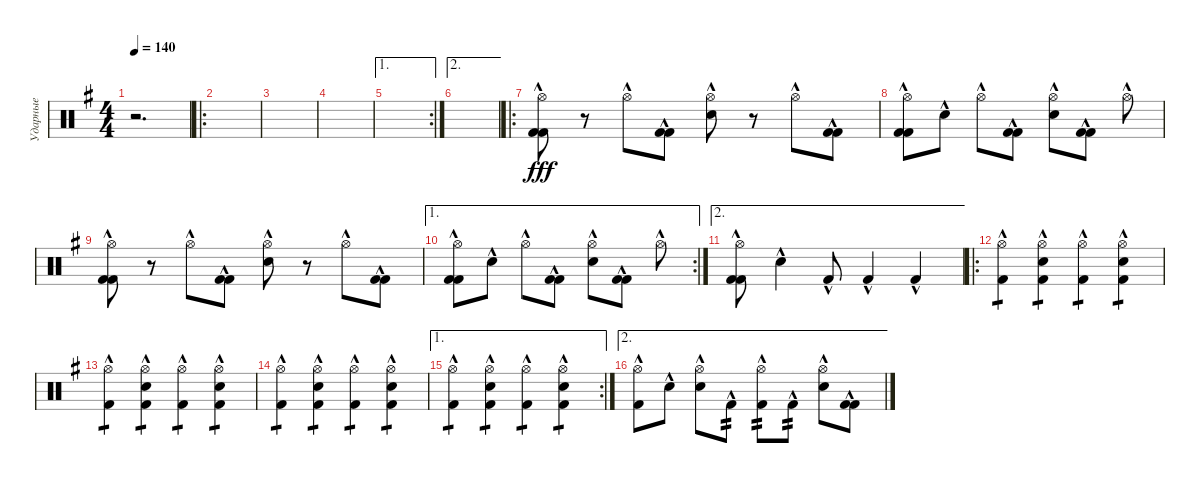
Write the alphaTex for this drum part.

\track ("Ударные" "Ударные") {instrument percussion}
\staff {score}
\articulation defaults
\ts (4 4)
\tempo 140
\clef neutral
\ks g
r.2{d dy fff} |
\ro
|
|
|
\ae 1
\rc 2
|
\ae 2
|
\ro
("Hi-Hat (open)"{hac} "Kick (hit) 2"{hac} "Kick (hit) 2"{hac}).8 r.8 "Hi-Hat (open)"{hac}.8 ("Kick (hit) 2"{hac} "Kick (hit) 2"{hac}).8 ("Hi-Hat (open)"{hac} "Electric Snare (hit)"{hac}).8 r.8 "Hi-Hat (open)"{hac}.8 ("Kick (hit) 2"{hac} "Kick (hit) 2"{hac}).8 |
("Hi-Hat (open)"{hac} "Kick (hit) 2"{hac} "Kick (hit) 2"{hac}).8 "Electric Snare (hit)"{hac}.8 "Hi-Hat (open)"{hac}.8 ("Kick (hit) 2"{hac} "Kick (hit) 2"{hac}).8 ("Hi-Hat (open)"{hac} "Electric Snare (hit)"{hac}).8 ("Kick (hit) 2"{hac} "Kick (hit) 2"{hac}).8 "Hi-Hat (open)"{hac}.8 |
("Hi-Hat (open)"{hac} "Kick (hit) 2"{hac} "Kick (hit) 2"{hac}).8 r.8 "Hi-Hat (open)"{hac}.8 ("Kick (hit) 2"{hac} "Kick (hit) 2"{hac}).8 ("Hi-Hat (open)"{hac} "Electric Snare (hit)"{hac}).8 r.8 "Hi-Hat (open)"{hac}.8 ("Kick (hit) 2"{hac} "Kick (hit) 2"{hac}).8 |
\ae 1
\rc 2
("Hi-Hat (open)"{hac} "Kick (hit) 2"{hac} "Kick (hit) 2"{hac}).8 "Electric Snare (hit)"{hac}.8 "Hi-Hat (open)"{hac}.8 ("Kick (hit) 2"{hac} "Kick (hit) 2"{hac}).8 ("Hi-Hat (open)"{hac} "Electric Snare (hit)"{hac}).8 ("Kick (hit) 2"{hac} "Kick (hit) 2"{hac}).8 "Hi-Hat (open)"{hac}.8 |
\ae 2
("Hi-Hat (open)"{hac} "Kick (hit) 2"{hac} "Kick (hit) 2"{hac}).8 "Electric Snare (hit)"{hac}.4 "Kick (hit) 2"{hac}.8 "Kick (hit) 2"{hac}.4 "Kick (hit) 2"{hac}.4 |
\ro
("Hi-Hat (open)"{hac} "Kick (hit) 2"{hac}).4{tp 1} ("Hi-Hat (open)"{hac} "Electric Snare (hit)"{hac} "Kick (hit) 2"{hac}).4{tp 1} ("Hi-Hat (open)"{hac} "Kick (hit) 2"{hac}).4{tp 1} ("Hi-Hat (open)"{hac} "Electric Snare (hit)"{hac} "Kick (hit) 2"{hac}).4{tp 1} |
("Hi-Hat (open)"{hac} "Kick (hit) 2"{hac}).4{tp 1} ("Hi-Hat (open)"{hac} "Electric Snare (hit)"{hac} "Kick (hit) 2"{hac}).4{tp 1} ("Hi-Hat (open)"{hac} "Kick (hit) 2"{hac}).4{tp 1} ("Hi-Hat (open)"{hac} "Electric Snare (hit)"{hac} "Kick (hit) 2"{hac}).4{tp 1} |
("Hi-Hat (open)"{hac} "Kick (hit) 2"{hac}).4{tp 1} ("Hi-Hat (open)"{hac} "Electric Snare (hit)"{hac} "Kick (hit) 2"{hac}).4{tp 1} ("Hi-Hat (open)"{hac} "Kick (hit) 2"{hac}).4{tp 1} ("Hi-Hat (open)"{hac} "Electric Snare (hit)"{hac} "Kick (hit) 2"{hac}).4{tp 1} |
\ae 1
\rc 2
("Hi-Hat (open)"{hac} "Kick (hit) 2"{hac}).4{tp 1} ("Hi-Hat (open)"{hac} "Electric Snare (hit)"{hac} "Kick (hit) 2"{hac}).4{tp 1} ("Hi-Hat (open)"{hac} "Kick (hit) 2"{hac}).4{tp 1} ("Hi-Hat (open)"{hac} "Electric Snare (hit)"{hac} "Kick (hit) 2"{hac}).4{tp 1} |
\ae 2
("Hi-Hat (open)"{hac} "Kick (hit) 2"{hac}).8 "Electric Snare (hit)"{hac}.8 ("Hi-Hat (open)"{hac} "Electric Snare (hit)"{hac}).8 "Kick (hit) 2"{hac}.8{tp 2} ("Hi-Hat (open)"{hac} "Kick (hit) 2"{hac}).8{tp 2} "Kick (hit) 2"{hac}.8{tp 2} ("Hi-Hat (open)"{hac} "Electric Snare (hit)"{hac}).8 ("Kick (hit) 2"{hac} "Kick (hit) 2"{hac}).8
